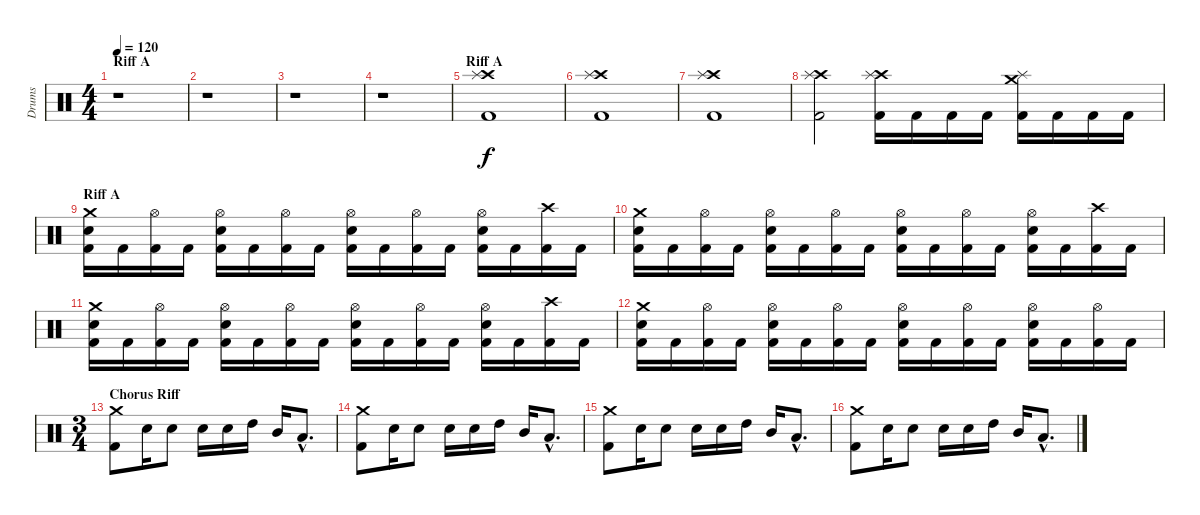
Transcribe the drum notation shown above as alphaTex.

\track ("Drums" "Drums") {instrument percussion}
\staff {score}
\articulation defaults
\ts (4 4)
\section ("" "Riff A")
\tempo 120
\clef neutral
\ks c
r.1{dy f} |
r.1 |
r.1 |
r.1 |
\section ("" "Riff A")
("Crash high (hit)" "Splash (hit)" "Kick (hit) 2").1 |
("Crash high (hit)" "Splash (hit)" "Kick (hit) 2").1 |
("Crash high (hit)" "Splash (hit)" "Kick (hit) 2").1 |
("Crash high (hit)" "Splash (hit)" "Kick (hit) 2").2 ("Crash high (hit)" "Splash (hit)" "Kick (hit) 2").16 "Kick (hit) 2".16 "Kick (hit) 2".16 "Kick (hit) 2".16 ("Crash medium (hit)" "Splash (hit)" "Kick (hit) 2").16 "Kick (hit) 2".16 "Kick (hit) 2".16 "Kick (hit) 2".16 |
\section ("" "Riff A")
("Crash medium (hit)" "Electric Snare (hit)" "Kick (hit) 2").16 "Kick (hit) 2".16 ("Hi-Hat (open)" "Kick (hit) 2").16 "Kick (hit) 2".16 ("Hi-Hat (open)" "Electric Snare (hit)" "Kick (hit) 2").16 "Kick (hit) 2".16 ("Hi-Hat (open)" "Kick (hit) 2").16 "Kick (hit) 2".16 ("Hi-Hat (open)" "Electric Snare (hit)" "Kick (hit) 2").16 "Kick (hit) 2".16 ("Hi-Hat (open)" "Kick (hit) 2").16 "Kick (hit) 2".16 ("Hi-Hat (open)" "Electric Snare (hit)" "Kick (hit) 2").16 "Kick (hit) 2".16 ("Crash high (hit)" "Kick (hit) 2").16 "Kick (hit) 2".16 |
("Crash medium (hit)" "Electric Snare (hit)" "Kick (hit) 2").16 "Kick (hit) 2".16 ("Hi-Hat (open)" "Kick (hit) 2").16 "Kick (hit) 2".16 ("Hi-Hat (open)" "Electric Snare (hit)" "Kick (hit) 2").16 "Kick (hit) 2".16 ("Hi-Hat (open)" "Kick (hit) 2").16 "Kick (hit) 2".16 ("Hi-Hat (open)" "Electric Snare (hit)" "Kick (hit) 2").16 "Kick (hit) 2".16 ("Hi-Hat (open)" "Kick (hit) 2").16 "Kick (hit) 2".16 ("Hi-Hat (open)" "Electric Snare (hit)" "Kick (hit) 2").16 "Kick (hit) 2".16 ("Crash high (hit)" "Kick (hit) 2").16 "Kick (hit) 2".16 |
("Crash medium (hit)" "Electric Snare (hit)" "Kick (hit) 2").16 "Kick (hit) 2".16 ("Hi-Hat (open)" "Kick (hit) 2").16 "Kick (hit) 2".16 ("Hi-Hat (open)" "Electric Snare (hit)" "Kick (hit) 2").16 "Kick (hit) 2".16 ("Hi-Hat (open)" "Kick (hit) 2").16 "Kick (hit) 2".16 ("Hi-Hat (open)" "Electric Snare (hit)" "Kick (hit) 2").16 "Kick (hit) 2".16 ("Hi-Hat (open)" "Kick (hit) 2").16 "Kick (hit) 2".16 ("Hi-Hat (open)" "Electric Snare (hit)" "Kick (hit) 2").16 "Kick (hit) 2".16 ("Crash high (hit)" "Kick (hit) 2").16 "Kick (hit) 2".16 |
("Crash medium (hit)" "Electric Snare (hit)" "Kick (hit) 2").16 "Kick (hit) 2".16 ("Hi-Hat (open)" "Kick (hit) 2").16 "Kick (hit) 2".16 ("Hi-Hat (open)" "Electric Snare (hit)" "Kick (hit) 2").16 "Kick (hit) 2".16 ("Hi-Hat (open)" "Kick (hit) 2").16 "Kick (hit) 2".16 ("Hi-Hat (open)" "Electric Snare (hit)" "Kick (hit) 2").16 "Kick (hit) 2".16 ("Hi-Hat (open)" "Kick (hit) 2").16 "Kick (hit) 2".16 ("Hi-Hat (open)" "Electric Snare (hit)" "Kick (hit) 2").16 "Kick (hit) 2".16 ("Hi-Hat (open)" "Kick (hit) 2").16 "Kick (hit) 2".16 |
\ts (3 4)
\section ("" "Chorus Riff")
("Crash medium (hit)" "Kick (hit) 2").8 "Electric Snare (hit)".16 "Electric Snare (hit)".8 "Electric Snare (hit)".16 "Electric Snare (hit)".16 "High Tom (hit)".16 "Mid Tom (hit)".16 "Low Tom (hit)"{hac}.8{d} |
("Crash medium (hit)" "Kick (hit) 2").8 "Electric Snare (hit)".16 "Electric Snare (hit)".8 "Electric Snare (hit)".16 "Electric Snare (hit)".16 "High Tom (hit)".16 "Mid Tom (hit)".16 "Low Tom (hit)"{hac}.8{d} |
("Crash medium (hit)" "Kick (hit) 2").8 "Electric Snare (hit)".16 "Electric Snare (hit)".8 "Electric Snare (hit)".16 "Electric Snare (hit)".16 "High Tom (hit)".16 "Mid Tom (hit)".16 "Low Tom (hit)"{hac}.8{d} |
("Crash medium (hit)" "Kick (hit) 2").8 "Electric Snare (hit)".16 "Electric Snare (hit)".8 "Electric Snare (hit)".16 "Electric Snare (hit)".16 "High Tom (hit)".16 "Mid Tom (hit)".16 "Low Tom (hit)"{hac}.8{d}
